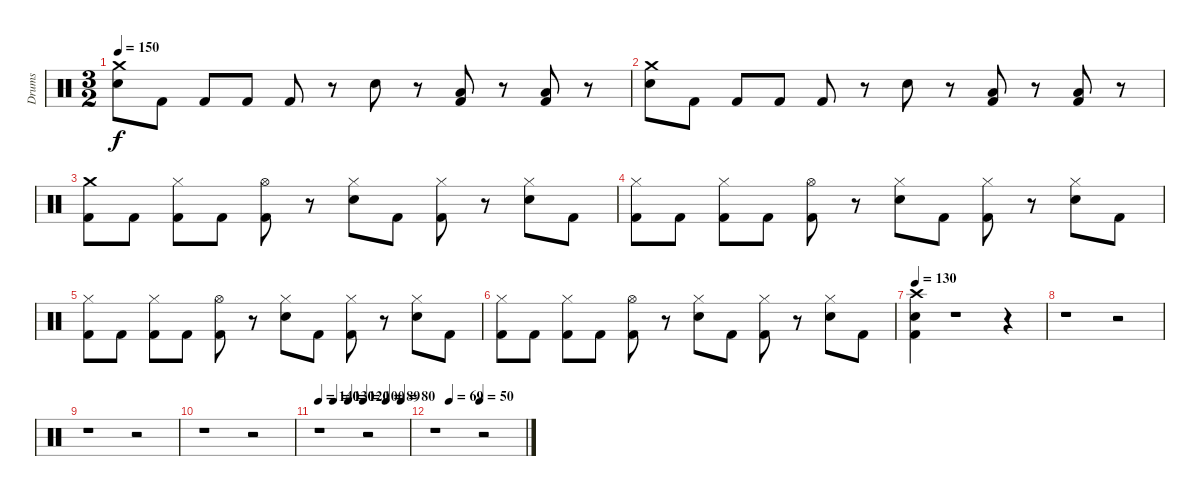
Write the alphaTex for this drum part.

\track ("Drums" "Drums") {instrument percussion}
\staff {score}
\articulation defaults
\ts (3 2)
\tempo 150
\clef neutral
\ks c
("Electric Snare (hit)" "Crash medium (hit)").8{dy f} "Kick (hit) 2".8 "Kick (hit) 2".8 "Kick (hit) 2".8 "Kick (hit) 2".8 r.8 "Electric Snare (hit)".8 r.8 ("Low Floor Tom (hit)" "Kick (hit) 2").8 r.8 ("Kick (hit) 2" "Low Floor Tom (hit)").8 r.8 |
("Electric Snare (hit)" "Crash medium (hit)").8 "Kick (hit) 2".8 "Kick (hit) 2".8 "Kick (hit) 2".8 "Kick (hit) 2".8 r.8 "Electric Snare (hit)".8 r.8 ("Kick (hit) 2" "Low Floor Tom (hit)").8 r.8 ("Low Floor Tom (hit)" "Kick (hit) 2").8 r.8 |
("Crash medium (hit)" "Kick (hit) 2").8 "Kick (hit) 2".8 ("Hi-Hat (closed)" "Kick (hit) 2").8 "Kick (hit) 2".8 ("Hi-Hat (open)" "Kick (hit) 2").8 r.8 ("Electric Snare (hit)" "Hi-Hat (closed)").8 "Kick (hit) 2".8 ("Kick (hit) 2" "Hi-Hat (closed)").8 r.8 ("Electric Snare (hit)" "Hi-Hat (closed)").8 "Kick (hit) 2".8 |
("Kick (hit) 2" "Hi-Hat (closed)").8 "Kick (hit) 2".8 ("Hi-Hat (closed)" "Kick (hit) 2").8 "Kick (hit) 2".8 ("Kick (hit) 2" "Hi-Hat (open)").8 r.8 ("Hi-Hat (closed)" "Electric Snare (hit)").8 "Kick (hit) 2".8 ("Hi-Hat (closed)" "Kick (hit) 2").8 r.8 ("Hi-Hat (closed)" "Electric Snare (hit)").8 "Kick (hit) 2".8 |
("Hi-Hat (closed)" "Kick (hit) 2").8 "Kick (hit) 2".8 ("Hi-Hat (closed)" "Kick (hit) 2").8 "Kick (hit) 2".8 ("Hi-Hat (open)" "Kick (hit) 2").8 r.8 ("Electric Snare (hit)" "Hi-Hat (closed)").8 "Kick (hit) 2".8 ("Hi-Hat (closed)" "Kick (hit) 2").8 r.8 ("Electric Snare (hit)" "Hi-Hat (closed)").8 "Kick (hit) 2".8 |
("Kick (hit) 2" "Hi-Hat (closed)").8 "Kick (hit) 2".8 ("Kick (hit) 2" "Hi-Hat (closed)").8 "Kick (hit) 2".8 ("Kick (hit) 2" "Hi-Hat (open)").8 r.8 ("Electric Snare (hit)" "Hi-Hat (closed)").8 "Kick (hit) 2".8 ("Kick (hit) 2" "Hi-Hat (closed)").8 r.8 ("Electric Snare (hit)" "Hi-Hat (closed)").8 "Kick (hit) 2".8 |
\tempo 130
("Crash high (hit)" "Electric Snare (hit)" "Kick (hit) 2").4 r.1 r.4 |
r.1 r.2 |
r.1 r.2 |
r.1 r.2 |
\tempo 140
\tempo (130 0.16666666666666666)
\tempo (120 0.3333333333333333)
\tempo (100 0.5)
\tempo (89 0.75)
\tempo (80 0.9166666666666666)
r.1 r.2 |
\tempo (69 0.16666666666666666)
\tempo (50 0.5)
r.1 r.2
